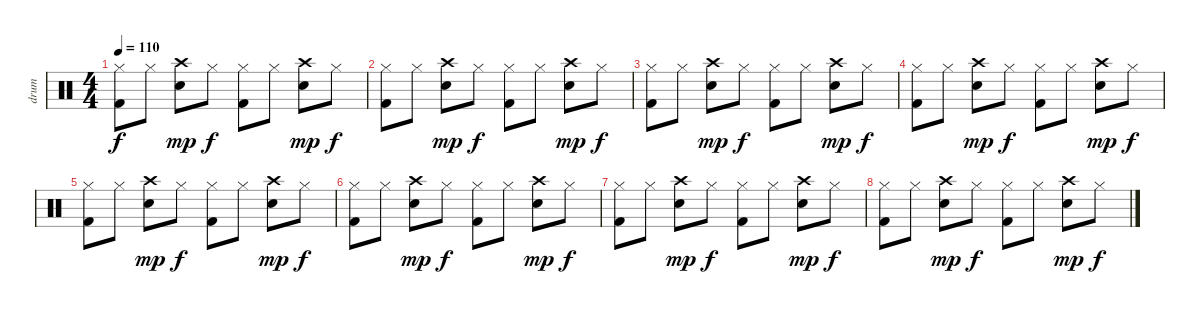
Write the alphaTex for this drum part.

\track ("drum" "drum") {instrument percussion}
\staff {score}
\articulation defaults
\ts (4 4)
\tempo 110
\clef neutral
\ks c
("Hi-Hat (closed)" "Kick (hit) 2").8{dy f} "Hi-Hat (closed)".8 ("Crash high (hit)" "Electric Snare (hit)").8{dy mp} "Hi-Hat (closed)".8{dy f} ("Hi-Hat (closed)" "Kick (hit) 2").8 "Hi-Hat (closed)".8 ("Crash high (hit)" "Electric Snare (hit)").8{dy mp} "Hi-Hat (closed)".8{dy f} |
("Hi-Hat (closed)" "Kick (hit) 2").8 "Hi-Hat (closed)".8 ("Crash high (hit)" "Electric Snare (hit)").8{dy mp} "Hi-Hat (closed)".8{dy f} ("Hi-Hat (closed)" "Kick (hit) 2").8 "Hi-Hat (closed)".8 ("Crash high (hit)" "Electric Snare (hit)").8{dy mp} "Hi-Hat (closed)".8{dy f} |
("Hi-Hat (closed)" "Kick (hit) 2").8 "Hi-Hat (closed)".8 ("Crash high (hit)" "Electric Snare (hit)").8{dy mp} "Hi-Hat (closed)".8{dy f} ("Hi-Hat (closed)" "Kick (hit) 2").8 "Hi-Hat (closed)".8 ("Crash high (hit)" "Electric Snare (hit)").8{dy mp} "Hi-Hat (closed)".8{dy f} |
("Hi-Hat (closed)" "Kick (hit) 2").8 "Hi-Hat (closed)".8 ("Crash high (hit)" "Electric Snare (hit)").8{dy mp} "Hi-Hat (closed)".8{dy f} ("Hi-Hat (closed)" "Kick (hit) 2").8 "Hi-Hat (closed)".8 ("Crash high (hit)" "Electric Snare (hit)").8{dy mp} "Hi-Hat (closed)".8{dy f} |
("Hi-Hat (closed)" "Kick (hit) 2").8 "Hi-Hat (closed)".8 ("Crash high (hit)" "Electric Snare (hit)").8{dy mp} "Hi-Hat (closed)".8{dy f} ("Hi-Hat (closed)" "Kick (hit) 2").8 "Hi-Hat (closed)".8 ("Crash high (hit)" "Electric Snare (hit)").8{dy mp} "Hi-Hat (closed)".8{dy f} |
("Hi-Hat (closed)" "Kick (hit) 2").8 "Hi-Hat (closed)".8 ("Crash high (hit)" "Electric Snare (hit)").8{dy mp} "Hi-Hat (closed)".8{dy f} ("Hi-Hat (closed)" "Kick (hit) 2").8 "Hi-Hat (closed)".8 ("Crash high (hit)" "Electric Snare (hit)").8{dy mp} "Hi-Hat (closed)".8{dy f} |
("Hi-Hat (closed)" "Kick (hit) 2").8 "Hi-Hat (closed)".8 ("Crash high (hit)" "Electric Snare (hit)").8{dy mp} "Hi-Hat (closed)".8{dy f} ("Hi-Hat (closed)" "Kick (hit) 2").8 "Hi-Hat (closed)".8 ("Crash high (hit)" "Electric Snare (hit)").8{dy mp} "Hi-Hat (closed)".8{dy f} |
("Hi-Hat (closed)" "Kick (hit) 2").8 "Hi-Hat (closed)".8 ("Crash high (hit)" "Electric Snare (hit)").8{dy mp} "Hi-Hat (closed)".8{dy f} ("Hi-Hat (closed)" "Kick (hit) 2").8 "Hi-Hat (closed)".8 ("Crash high (hit)" "Electric Snare (hit)").8{dy mp} "Hi-Hat (closed)".8{dy f}
